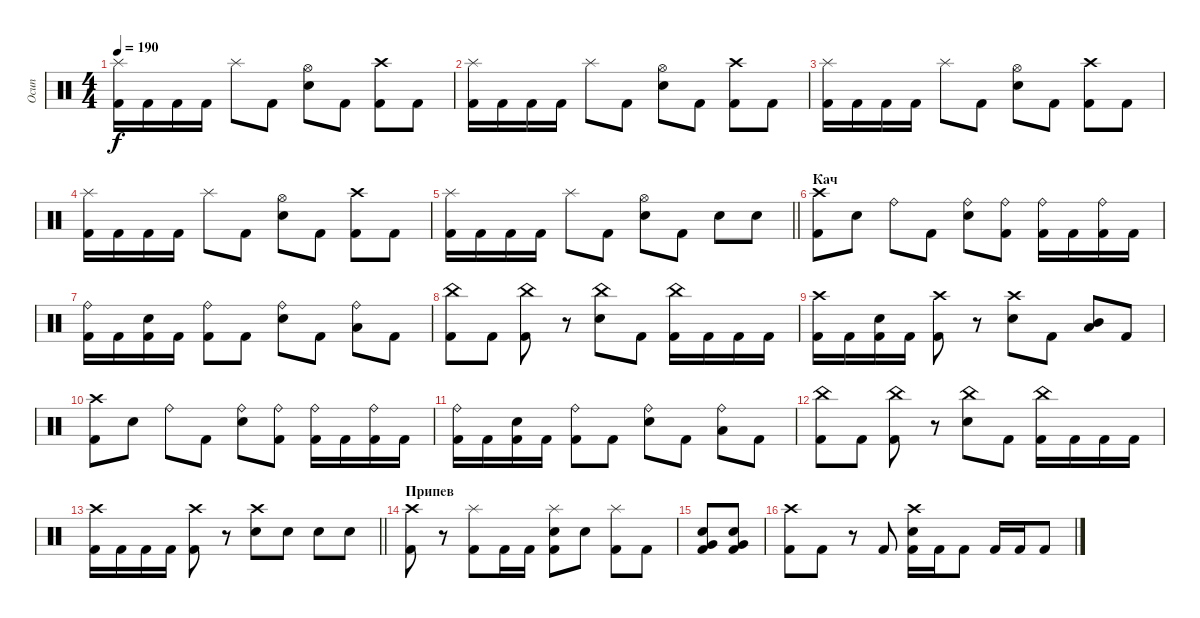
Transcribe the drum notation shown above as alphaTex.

\track ("Осип" "Осип") {instrument percussion}
\staff {score}
\articulation defaults
\ts (4 4)
\tempo 190
\clef neutral
\ks c
("Splash (hit)" "Kick (hit) 2").16{dy f} "Kick (hit) 2".16 "Kick (hit) 2".16 "Kick (hit) 2".16 "Splash (hit)".8 "Kick (hit) 2".8 ("Electric Snare (hit)" "Hi-Hat (open)").8 "Kick (hit) 2".8 ("Crash high (hit)" "Kick (hit) 2").8 "Kick (hit) 2".8 |
("Splash (hit)" "Kick (hit) 2").16 "Kick (hit) 2".16 "Kick (hit) 2".16 "Kick (hit) 2".16 "Splash (hit)".8 "Kick (hit) 2".8 ("Electric Snare (hit)" "Hi-Hat (open)").8 "Kick (hit) 2".8 ("Crash high (hit)" "Kick (hit) 2").8 "Kick (hit) 2".8 |
("Splash (hit)" "Kick (hit) 2").16 "Kick (hit) 2".16 "Kick (hit) 2".16 "Kick (hit) 2".16 "Splash (hit)".8 "Kick (hit) 2".8 ("Electric Snare (hit)" "Hi-Hat (open)").8 "Kick (hit) 2".8 ("Crash high (hit)" "Kick (hit) 2").8 "Kick (hit) 2".8 |
("Splash (hit)" "Kick (hit) 2").16 "Kick (hit) 2".16 "Kick (hit) 2".16 "Kick (hit) 2".16 "Splash (hit)".8 "Kick (hit) 2".8 ("Electric Snare (hit)" "Hi-Hat (open)").8 "Kick (hit) 2".8 ("Crash high (hit)" "Kick (hit) 2").8 "Kick (hit) 2".8 |
\barLineRight lightlight
("Splash (hit)" "Kick (hit) 2").16 "Kick (hit) 2".16 "Kick (hit) 2".16 "Kick (hit) 2".16 "Splash (hit)".8 "Kick (hit) 2".8 ("Electric Snare (hit)" "Hi-Hat (open)").8 "Kick (hit) 2".8 "Electric Snare (hit)".8 "Electric Snare (hit)".8 |
\section ("" "Кач")
("Kick (hit) 2" "Crash high (hit)").8 "Electric Snare (hit)".8 "Ride (bell)".8 "Kick (hit) 2".8 ("Electric Snare (hit)" "Ride (bell)").8 ("Kick (hit) 2" "Ride (bell)").8 ("Kick (hit) 2" "Ride (bell)").16 "Kick (hit) 2".16 ("Kick (hit) 2" "Ride (bell)").16 "Kick (hit) 2".16 |
("Kick (hit) 2" "Ride (bell)").16 "Kick (hit) 2".16 ("Kick (hit) 2" "Electric Snare (hit)").16 "Kick (hit) 2".16 ("Kick (hit) 2" "Ride (bell)").8 "Kick (hit) 2".8 ("Electric Snare (hit)" "Ride (bell)").8 "Kick (hit) 2".8 ("Low Tom (hit)" "Ride (bell)").8 "Kick (hit) 2".8 |
("Kick (hit) 2" "China (hit)").8 "Kick (hit) 2".8 ("Kick (hit) 2" "China (hit)").8 r.8 ("Electric Snare (hit)" "China (hit)").8 "Kick (hit) 2".8 ("Kick (hit) 2" "China (hit)").16 "Kick (hit) 2".16 "Kick (hit) 2".16 "Kick (hit) 2".16 |
("Kick (hit) 2" "Crash high (hit)").16 "Kick (hit) 2".16 ("Kick (hit) 2" "Electric Snare (hit)").16 "Kick (hit) 2".16 ("Kick (hit) 2" "Crash high (hit)").8 r.8 ("Electric Snare (hit)" "Crash high (hit)").8 "Kick (hit) 2".8 ("Low Tom (hit)" "Mid Tom (hit)").8 "Kick (hit) 2".8 |
("Kick (hit) 2" "Crash high (hit)").8 "Electric Snare (hit)".8 "Ride (bell)".8 "Kick (hit) 2".8 ("Electric Snare (hit)" "Ride (bell)").8 ("Kick (hit) 2" "Ride (bell)").8 ("Kick (hit) 2" "Ride (bell)").16 "Kick (hit) 2".16 ("Kick (hit) 2" "Ride (bell)").16 "Kick (hit) 2".16 |
("Kick (hit) 2" "Ride (bell)").16 "Kick (hit) 2".16 ("Kick (hit) 2" "Electric Snare (hit)").16 "Kick (hit) 2".16 ("Kick (hit) 2" "Ride (bell)").8 "Kick (hit) 2".8 ("Electric Snare (hit)" "Ride (bell)").8 "Kick (hit) 2".8 ("Low Tom (hit)" "Ride (bell)").8 "Kick (hit) 2".8 |
("Kick (hit) 2" "China (hit)").8 "Kick (hit) 2".8 ("Kick (hit) 2" "China (hit)").8 r.8 ("Electric Snare (hit)" "China (hit)").8 "Kick (hit) 2".8 ("Kick (hit) 2" "China (hit)").16 "Kick (hit) 2".16 "Kick (hit) 2".16 "Kick (hit) 2".16 |
\barLineRight lightlight
("Kick (hit) 2" "Crash high (hit)").16 "Kick (hit) 2".16 "Kick (hit) 2".16 "Kick (hit) 2".16 ("Kick (hit) 2" "Crash high (hit)").8 r.8 ("Electric Snare (hit)" "Crash high (hit)").8 "Electric Snare (hit)".8 "Electric Snare (hit)".8 "Electric Snare (hit)".8 |
\section ("" "Припев")
("Kick (hit) 2" "Crash high (hit)").8 r.8 ("Kick (hit) 2" "Splash (hit)").8 "Kick (hit) 2".16 "Kick (hit) 2".16 ("Electric Snare (hit)" "Kick (hit) 2" "Splash (hit)").8 "Electric Snare (hit)".8 ("Kick (hit) 2" "Splash (hit)").8 "Kick (hit) 2".8 |
("Kick (hit) 2" "Electric Snare (hit)" "Very Low Tom (hit)").8 ("Kick (hit) 2" "Electric Snare (hit)" "Very Low Tom (hit)").8 |
("Kick (hit) 2" "Crash high (hit)").8 "Kick (hit) 2".8 r.8 "Kick (hit) 2".8 ("Kick (hit) 2" "Electric Snare (hit)" "Crash high (hit)").16 "Kick (hit) 2".16 "Kick (hit) 2".8 "Kick (hit) 2".16 "Kick (hit) 2".16 "Kick (hit) 2".8
